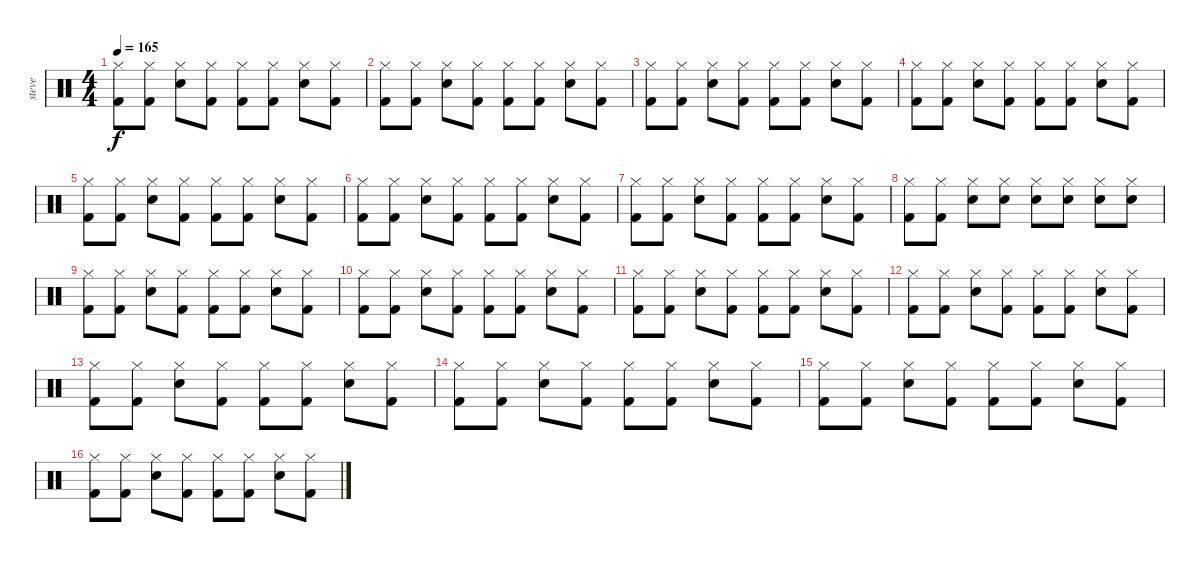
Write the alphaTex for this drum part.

\track ("steve" "steve") {instrument percussion}
\staff {score}
\articulation defaults
\ts (4 4)
\tempo 165
\clef neutral
\ks c
("Hi-Hat (closed)" "Kick (hit) 2").8{dy f} ("Hi-Hat (closed)" "Kick (hit) 2").8 ("Hi-Hat (closed)" "Electric Snare (hit)").8 ("Hi-Hat (closed)" "Kick (hit) 2").8 ("Hi-Hat (closed)" "Kick (hit) 2").8 ("Hi-Hat (closed)" "Kick (hit) 2").8 ("Hi-Hat (closed)" "Electric Snare (hit)").8 ("Hi-Hat (closed)" "Kick (hit) 2").8 |
("Hi-Hat (closed)" "Kick (hit) 2").8 ("Hi-Hat (closed)" "Kick (hit) 2").8 ("Hi-Hat (closed)" "Electric Snare (hit)").8 ("Hi-Hat (closed)" "Kick (hit) 2").8 ("Hi-Hat (closed)" "Kick (hit) 2").8 ("Hi-Hat (closed)" "Kick (hit) 2").8 ("Hi-Hat (closed)" "Electric Snare (hit)").8 ("Hi-Hat (closed)" "Kick (hit) 2").8 |
("Hi-Hat (closed)" "Kick (hit) 2").8 ("Hi-Hat (closed)" "Kick (hit) 2").8 ("Hi-Hat (closed)" "Electric Snare (hit)").8 ("Hi-Hat (closed)" "Kick (hit) 2").8 ("Hi-Hat (closed)" "Kick (hit) 2").8 ("Hi-Hat (closed)" "Kick (hit) 2").8 ("Hi-Hat (closed)" "Electric Snare (hit)").8 ("Hi-Hat (closed)" "Kick (hit) 2").8 |
("Hi-Hat (closed)" "Kick (hit) 2").8 ("Hi-Hat (closed)" "Kick (hit) 2").8 ("Hi-Hat (closed)" "Electric Snare (hit)").8 ("Hi-Hat (closed)" "Kick (hit) 2").8 ("Hi-Hat (closed)" "Kick (hit) 2").8 ("Hi-Hat (closed)" "Kick (hit) 2").8 ("Hi-Hat (closed)" "Electric Snare (hit)").8 ("Hi-Hat (closed)" "Kick (hit) 2").8 |
("Hi-Hat (closed)" "Kick (hit) 2").8 ("Hi-Hat (closed)" "Kick (hit) 2").8 ("Hi-Hat (closed)" "Electric Snare (hit)").8 ("Hi-Hat (closed)" "Kick (hit) 2").8 ("Hi-Hat (closed)" "Kick (hit) 2").8 ("Hi-Hat (closed)" "Kick (hit) 2").8 ("Hi-Hat (closed)" "Electric Snare (hit)").8 ("Hi-Hat (closed)" "Kick (hit) 2").8 |
("Hi-Hat (closed)" "Kick (hit) 2").8 ("Hi-Hat (closed)" "Kick (hit) 2").8 ("Hi-Hat (closed)" "Electric Snare (hit)").8 ("Hi-Hat (closed)" "Kick (hit) 2").8 ("Hi-Hat (closed)" "Kick (hit) 2").8 ("Hi-Hat (closed)" "Kick (hit) 2").8 ("Hi-Hat (closed)" "Electric Snare (hit)").8 ("Hi-Hat (closed)" "Kick (hit) 2").8 |
("Hi-Hat (closed)" "Kick (hit) 2").8 ("Hi-Hat (closed)" "Kick (hit) 2").8 ("Hi-Hat (closed)" "Electric Snare (hit)").8 ("Hi-Hat (closed)" "Kick (hit) 2").8 ("Hi-Hat (closed)" "Kick (hit) 2").8 ("Hi-Hat (closed)" "Kick (hit) 2").8 ("Hi-Hat (closed)" "Electric Snare (hit)").8 ("Hi-Hat (closed)" "Kick (hit) 2").8 |
("Hi-Hat (closed)" "Kick (hit) 2").8 ("Hi-Hat (closed)" "Kick (hit) 2").8 ("Hi-Hat (closed)" "Electric Snare (hit)").8 ("Hi-Hat (closed)" "Electric Snare (hit)").8 ("Hi-Hat (closed)" "Electric Snare (hit)").8 ("Hi-Hat (closed)" "Electric Snare (hit)").8 ("Hi-Hat (closed)" "Electric Snare (hit)").8 ("Hi-Hat (closed)" "Electric Snare (hit)").8 |
("Hi-Hat (closed)" "Kick (hit) 2").8 ("Hi-Hat (closed)" "Kick (hit) 2").8 ("Hi-Hat (closed)" "Electric Snare (hit)").8 ("Hi-Hat (closed)" "Kick (hit) 2").8 ("Hi-Hat (closed)" "Kick (hit) 2").8 ("Hi-Hat (closed)" "Kick (hit) 2").8 ("Hi-Hat (closed)" "Electric Snare (hit)").8 ("Hi-Hat (closed)" "Kick (hit) 2").8 |
("Hi-Hat (closed)" "Kick (hit) 2").8 ("Hi-Hat (closed)" "Kick (hit) 2").8 ("Hi-Hat (closed)" "Electric Snare (hit)").8 ("Hi-Hat (closed)" "Kick (hit) 2").8 ("Hi-Hat (closed)" "Kick (hit) 2").8 ("Hi-Hat (closed)" "Kick (hit) 2").8 ("Hi-Hat (closed)" "Electric Snare (hit)").8 ("Hi-Hat (closed)" "Kick (hit) 2").8 |
("Hi-Hat (closed)" "Kick (hit) 2").8 ("Hi-Hat (closed)" "Kick (hit) 2").8 ("Hi-Hat (closed)" "Electric Snare (hit)").8 ("Hi-Hat (closed)" "Kick (hit) 2").8 ("Hi-Hat (closed)" "Kick (hit) 2").8 ("Hi-Hat (closed)" "Kick (hit) 2").8 ("Hi-Hat (closed)" "Electric Snare (hit)").8 ("Hi-Hat (closed)" "Kick (hit) 2").8 |
("Hi-Hat (closed)" "Kick (hit) 2").8 ("Hi-Hat (closed)" "Kick (hit) 2").8 ("Hi-Hat (closed)" "Electric Snare (hit)").8 ("Hi-Hat (closed)" "Kick (hit) 2").8 ("Hi-Hat (closed)" "Kick (hit) 2").8 ("Hi-Hat (closed)" "Kick (hit) 2").8 ("Hi-Hat (closed)" "Electric Snare (hit)").8 ("Hi-Hat (closed)" "Kick (hit) 2").8 |
("Hi-Hat (closed)" "Kick (hit) 2").8 ("Hi-Hat (closed)" "Kick (hit) 2").8 ("Hi-Hat (closed)" "Electric Snare (hit)").8 ("Hi-Hat (closed)" "Kick (hit) 2").8 ("Hi-Hat (closed)" "Kick (hit) 2").8 ("Hi-Hat (closed)" "Kick (hit) 2").8 ("Hi-Hat (closed)" "Electric Snare (hit)").8 ("Hi-Hat (closed)" "Kick (hit) 2").8 |
("Hi-Hat (closed)" "Kick (hit) 2").8 ("Hi-Hat (closed)" "Kick (hit) 2").8 ("Hi-Hat (closed)" "Electric Snare (hit)").8 ("Hi-Hat (closed)" "Kick (hit) 2").8 ("Hi-Hat (closed)" "Kick (hit) 2").8 ("Hi-Hat (closed)" "Kick (hit) 2").8 ("Hi-Hat (closed)" "Electric Snare (hit)").8 ("Hi-Hat (closed)" "Kick (hit) 2").8 |
("Hi-Hat (closed)" "Kick (hit) 2").8 ("Hi-Hat (closed)" "Kick (hit) 2").8 ("Hi-Hat (closed)" "Electric Snare (hit)").8 ("Hi-Hat (closed)" "Kick (hit) 2").8 ("Hi-Hat (closed)" "Kick (hit) 2").8 ("Hi-Hat (closed)" "Kick (hit) 2").8 ("Hi-Hat (closed)" "Electric Snare (hit)").8 ("Hi-Hat (closed)" "Kick (hit) 2").8 |
("Hi-Hat (closed)" "Kick (hit) 2").8 ("Hi-Hat (closed)" "Kick (hit) 2").8 ("Hi-Hat (closed)" "Electric Snare (hit)").8 ("Hi-Hat (closed)" "Kick (hit) 2").8 ("Hi-Hat (closed)" "Kick (hit) 2").8 ("Hi-Hat (closed)" "Kick (hit) 2").8 ("Hi-Hat (closed)" "Electric Snare (hit)").8 ("Hi-Hat (closed)" "Kick (hit) 2").8
